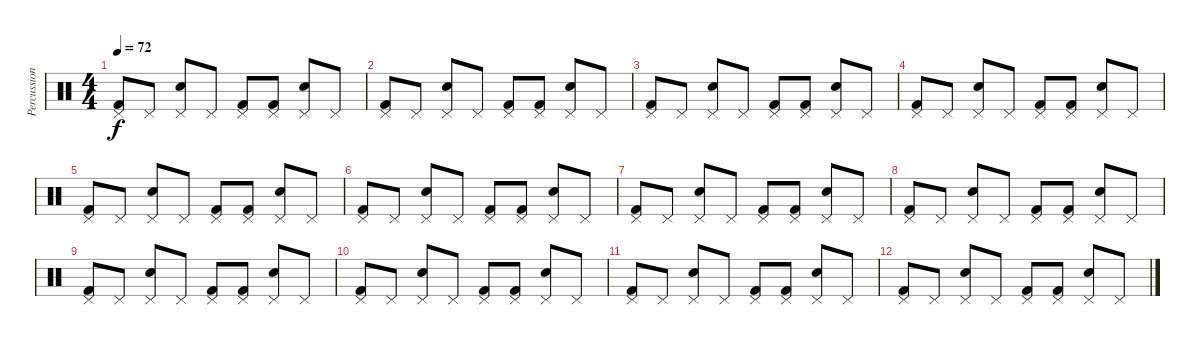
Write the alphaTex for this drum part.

\track ("Percussion" "Percussion") {instrument percussion}
\staff {score}
\articulation defaults
\ts (4 4)
\tempo 72
\clef neutral
\ks c
("Pedal Hi-Hat (hit)" "Kick (hit) 2").8{dy f} "Pedal Hi-Hat (hit)".8 ("Pedal Hi-Hat (hit)" "Snare (hit) 2").8 "Pedal Hi-Hat (hit)".8 ("Pedal Hi-Hat (hit)" "Kick (hit) 2").8 ("Pedal Hi-Hat (hit)" "Kick (hit) 2").8 ("Pedal Hi-Hat (hit)" "Snare (hit) 2").8 "Pedal Hi-Hat (hit)".8 |
("Pedal Hi-Hat (hit)" "Kick (hit) 2").8 "Pedal Hi-Hat (hit)".8 ("Pedal Hi-Hat (hit)" "Snare (hit) 2").8 "Pedal Hi-Hat (hit)".8 ("Pedal Hi-Hat (hit)" "Kick (hit) 2").8 ("Pedal Hi-Hat (hit)" "Kick (hit) 2").8 ("Pedal Hi-Hat (hit)" "Snare (hit) 2").8 "Pedal Hi-Hat (hit)".8 |
("Pedal Hi-Hat (hit)" "Kick (hit) 2").8 "Pedal Hi-Hat (hit)".8 ("Pedal Hi-Hat (hit)" "Snare (hit) 2").8 "Pedal Hi-Hat (hit)".8 ("Pedal Hi-Hat (hit)" "Kick (hit) 2").8 ("Pedal Hi-Hat (hit)" "Kick (hit) 2").8 ("Pedal Hi-Hat (hit)" "Snare (hit) 2").8 "Pedal Hi-Hat (hit)".8 |
("Pedal Hi-Hat (hit)" "Kick (hit) 2").8 "Pedal Hi-Hat (hit)".8 ("Pedal Hi-Hat (hit)" "Snare (hit) 2").8 "Pedal Hi-Hat (hit)".8 ("Pedal Hi-Hat (hit)" "Kick (hit) 2").8 ("Pedal Hi-Hat (hit)" "Kick (hit) 2").8 ("Pedal Hi-Hat (hit)" "Snare (hit) 2").8 "Pedal Hi-Hat (hit)".8 |
("Pedal Hi-Hat (hit)" "Kick (hit) 2").8 "Pedal Hi-Hat (hit)".8 ("Pedal Hi-Hat (hit)" "Snare (hit) 2").8 "Pedal Hi-Hat (hit)".8 ("Pedal Hi-Hat (hit)" "Kick (hit) 2").8 ("Pedal Hi-Hat (hit)" "Kick (hit) 2").8 ("Pedal Hi-Hat (hit)" "Snare (hit) 2").8 "Pedal Hi-Hat (hit)".8 |
("Pedal Hi-Hat (hit)" "Kick (hit) 2").8 "Pedal Hi-Hat (hit)".8 ("Pedal Hi-Hat (hit)" "Snare (hit) 2").8 "Pedal Hi-Hat (hit)".8 ("Pedal Hi-Hat (hit)" "Kick (hit) 2").8 ("Pedal Hi-Hat (hit)" "Kick (hit) 2").8 ("Pedal Hi-Hat (hit)" "Snare (hit) 2").8 "Pedal Hi-Hat (hit)".8 |
("Pedal Hi-Hat (hit)" "Kick (hit) 2").8 "Pedal Hi-Hat (hit)".8 ("Pedal Hi-Hat (hit)" "Snare (hit) 2").8 "Pedal Hi-Hat (hit)".8 ("Pedal Hi-Hat (hit)" "Kick (hit) 2").8 ("Pedal Hi-Hat (hit)" "Kick (hit) 2").8 ("Pedal Hi-Hat (hit)" "Snare (hit) 2").8 "Pedal Hi-Hat (hit)".8 |
("Pedal Hi-Hat (hit)" "Kick (hit) 2").8 "Pedal Hi-Hat (hit)".8 ("Pedal Hi-Hat (hit)" "Snare (hit) 2").8 "Pedal Hi-Hat (hit)".8 ("Pedal Hi-Hat (hit)" "Kick (hit) 2").8 ("Pedal Hi-Hat (hit)" "Kick (hit) 2").8 ("Pedal Hi-Hat (hit)" "Snare (hit) 2").8 "Pedal Hi-Hat (hit)".8 |
("Pedal Hi-Hat (hit)" "Kick (hit) 2").8 "Pedal Hi-Hat (hit)".8 ("Pedal Hi-Hat (hit)" "Snare (hit) 2").8 "Pedal Hi-Hat (hit)".8 ("Pedal Hi-Hat (hit)" "Kick (hit) 2").8 ("Pedal Hi-Hat (hit)" "Kick (hit) 2").8 ("Pedal Hi-Hat (hit)" "Snare (hit) 2").8 "Pedal Hi-Hat (hit)".8 |
("Pedal Hi-Hat (hit)" "Kick (hit) 2").8 "Pedal Hi-Hat (hit)".8 ("Pedal Hi-Hat (hit)" "Snare (hit) 2").8 "Pedal Hi-Hat (hit)".8 ("Pedal Hi-Hat (hit)" "Kick (hit) 2").8 ("Pedal Hi-Hat (hit)" "Kick (hit) 2").8 ("Pedal Hi-Hat (hit)" "Snare (hit) 2").8 "Pedal Hi-Hat (hit)".8 |
("Pedal Hi-Hat (hit)" "Kick (hit) 2").8 "Pedal Hi-Hat (hit)".8 ("Pedal Hi-Hat (hit)" "Snare (hit) 2").8 "Pedal Hi-Hat (hit)".8 ("Pedal Hi-Hat (hit)" "Kick (hit) 2").8 ("Pedal Hi-Hat (hit)" "Kick (hit) 2").8 ("Pedal Hi-Hat (hit)" "Snare (hit) 2").8 "Pedal Hi-Hat (hit)".8 |
("Pedal Hi-Hat (hit)" "Kick (hit) 2").8 "Pedal Hi-Hat (hit)".8 ("Pedal Hi-Hat (hit)" "Snare (hit) 2").8 "Pedal Hi-Hat (hit)".8 ("Pedal Hi-Hat (hit)" "Kick (hit) 2").8 ("Pedal Hi-Hat (hit)" "Kick (hit) 2").8 ("Pedal Hi-Hat (hit)" "Snare (hit) 2").8 "Pedal Hi-Hat (hit)".8
